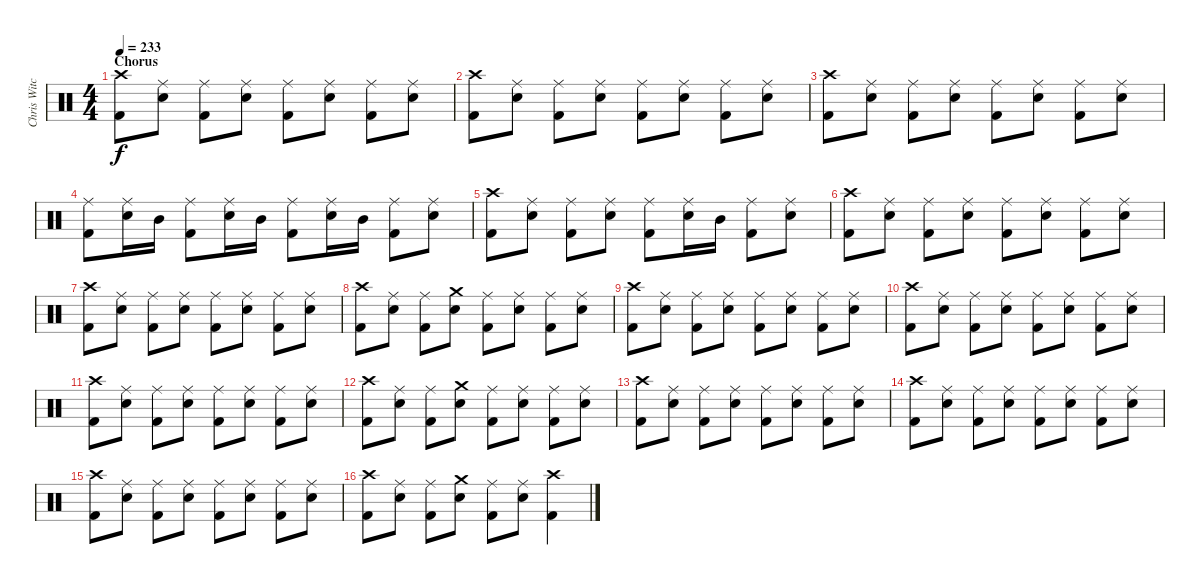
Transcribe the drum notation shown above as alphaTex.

\track ("Chris Witchunter" "Chris Witc") {instrument percussion}
\staff {score}
\articulation defaults
\ts (4 4)
\section ("" "Chorus")
\tempo 233
\clef neutral
\ks c
("Crash high (hit)" "Kick (hit) 2").8{dy f} ("Ride (middle)" "Snare (hit) 2").8 ("Ride (middle)" "Kick (hit) 2").8 ("Ride (middle)" "Snare (hit) 2").8 ("Ride (middle)" "Kick (hit) 2").8 ("Ride (middle)" "Snare (hit) 2").8 ("Ride (middle)" "Kick (hit) 2").8 ("Ride (middle)" "Snare (hit) 2").8 |
("Crash high (hit)" "Kick (hit) 2").8 ("Ride (middle)" "Snare (hit) 2").8 ("Ride (middle)" "Kick (hit) 2").8 ("Ride (middle)" "Snare (hit) 2").8 ("Ride (middle)" "Kick (hit) 2").8 ("Ride (middle)" "Snare (hit) 2").8 ("Ride (middle)" "Kick (hit) 2").8 ("Ride (middle)" "Snare (hit) 2").8 |
("Crash high (hit)" "Kick (hit) 2").8 ("Ride (middle)" "Snare (hit) 2").8 ("Ride (middle)" "Kick (hit) 2").8 ("Ride (middle)" "Snare (hit) 2").8 ("Ride (middle)" "Kick (hit) 2").8 ("Ride (middle)" "Snare (hit) 2").8 ("Ride (middle)" "Kick (hit) 2").8 ("Ride (middle)" "Snare (hit) 2").8 |
("Ride (middle)" "Kick (hit) 2").8 ("Ride (middle)" "Snare (hit) 2").16 "Mid Tom (hit)".16 ("Ride (middle)" "Kick (hit) 2").8 ("Ride (middle)" "Snare (hit) 2").16 "Mid Tom (hit)".16 ("Ride (middle)" "Kick (hit) 2").8 ("Ride (middle)" "Snare (hit) 2").16 "Mid Tom (hit)".16 ("Ride (middle)" "Kick (hit) 2").8 ("Ride (middle)" "Snare (hit) 2").8 |
("Crash high (hit)" "Kick (hit) 2").8 ("Ride (middle)" "Snare (hit) 2").8 ("Ride (middle)" "Kick (hit) 2").8 ("Ride (middle)" "Snare (hit) 2").8 ("Ride (middle)" "Kick (hit) 2").8 ("Ride (middle)" "Snare (hit) 2").16 "Mid Tom (hit)".16 ("Ride (middle)" "Kick (hit) 2").8 ("Ride (middle)" "Snare (hit) 2").8 |
("Crash high (hit)" "Kick (hit) 2").8 ("Ride (middle)" "Snare (hit) 2").8 ("Ride (middle)" "Kick (hit) 2").8 ("Ride (middle)" "Snare (hit) 2").8 ("Ride (middle)" "Kick (hit) 2").8 ("Ride (middle)" "Snare (hit) 2").8 ("Ride (middle)" "Kick (hit) 2").8 ("Ride (middle)" "Snare (hit) 2").8 |
("Crash high (hit)" "Kick (hit) 2").8 ("Ride (middle)" "Snare (hit) 2").8 ("Ride (middle)" "Kick (hit) 2").8 ("Ride (middle)" "Snare (hit) 2").8 ("Ride (middle)" "Kick (hit) 2").8 ("Ride (middle)" "Snare (hit) 2").8 ("Ride (middle)" "Kick (hit) 2").8 ("Ride (middle)" "Snare (hit) 2").8 |
("Crash high (hit)" "Kick (hit) 2").8 ("Ride (middle)" "Snare (hit) 2").8 ("Ride (middle)" "Kick (hit) 2").8 ("Crash medium (hit)" "Snare (hit) 2").8 ("Ride (middle)" "Kick (hit) 2").8 ("Ride (middle)" "Snare (hit) 2").8 ("Ride (middle)" "Kick (hit) 2").8 ("Ride (middle)" "Snare (hit) 2").8 |
("Crash high (hit)" "Kick (hit) 2").8 ("Ride (middle)" "Snare (hit) 2").8 ("Ride (middle)" "Kick (hit) 2").8 ("Ride (middle)" "Snare (hit) 2").8 ("Ride (middle)" "Kick (hit) 2").8 ("Ride (middle)" "Snare (hit) 2").8 ("Ride (middle)" "Kick (hit) 2").8 ("Ride (middle)" "Snare (hit) 2").8 |
("Crash high (hit)" "Kick (hit) 2").8 ("Ride (middle)" "Snare (hit) 2").8 ("Ride (middle)" "Kick (hit) 2").8 ("Ride (middle)" "Snare (hit) 2").8 ("Ride (middle)" "Kick (hit) 2").8 ("Ride (middle)" "Snare (hit) 2").8 ("Ride (middle)" "Kick (hit) 2").8 ("Ride (middle)" "Snare (hit) 2").8 |
("Crash high (hit)" "Kick (hit) 2").8 ("Ride (middle)" "Snare (hit) 2").8 ("Ride (middle)" "Kick (hit) 2").8 ("Ride (middle)" "Snare (hit) 2").8 ("Ride (middle)" "Kick (hit) 2").8 ("Ride (middle)" "Snare (hit) 2").8 ("Ride (middle)" "Kick (hit) 2").8 ("Ride (middle)" "Snare (hit) 2").8 |
("Crash high (hit)" "Kick (hit) 2").8 ("Ride (middle)" "Snare (hit) 2").8 ("Ride (middle)" "Kick (hit) 2").8 ("Crash medium (hit)" "Snare (hit) 2").8 ("Ride (middle)" "Kick (hit) 2").8 ("Ride (middle)" "Snare (hit) 2").8 ("Ride (middle)" "Kick (hit) 2").8 ("Ride (middle)" "Snare (hit) 2").8 |
("Crash high (hit)" "Kick (hit) 2").8 ("Ride (middle)" "Snare (hit) 2").8 ("Ride (middle)" "Kick (hit) 2").8 ("Ride (middle)" "Snare (hit) 2").8 ("Ride (middle)" "Kick (hit) 2").8 ("Ride (middle)" "Snare (hit) 2").8 ("Ride (middle)" "Kick (hit) 2").8 ("Ride (middle)" "Snare (hit) 2").8 |
("Crash high (hit)" "Kick (hit) 2").8 ("Ride (middle)" "Snare (hit) 2").8 ("Ride (middle)" "Kick (hit) 2").8 ("Ride (middle)" "Snare (hit) 2").8 ("Ride (middle)" "Kick (hit) 2").8 ("Ride (middle)" "Snare (hit) 2").8 ("Ride (middle)" "Kick (hit) 2").8 ("Ride (middle)" "Snare (hit) 2").8 |
("Crash high (hit)" "Kick (hit) 2").8 ("Ride (middle)" "Snare (hit) 2").8 ("Ride (middle)" "Kick (hit) 2").8 ("Ride (middle)" "Snare (hit) 2").8 ("Ride (middle)" "Kick (hit) 2").8 ("Ride (middle)" "Snare (hit) 2").8 ("Ride (middle)" "Kick (hit) 2").8 ("Ride (middle)" "Snare (hit) 2").8 |
("Crash high (hit)" "Kick (hit) 2").8 ("Ride (middle)" "Snare (hit) 2").8 ("Ride (middle)" "Kick (hit) 2").8 ("Crash medium (hit)" "Snare (hit) 2").8 ("Ride (middle)" "Kick (hit) 2").8 ("Ride (middle)" "Snare (hit) 2").8 ("Crash high (hit)" "Kick (hit) 2").4
